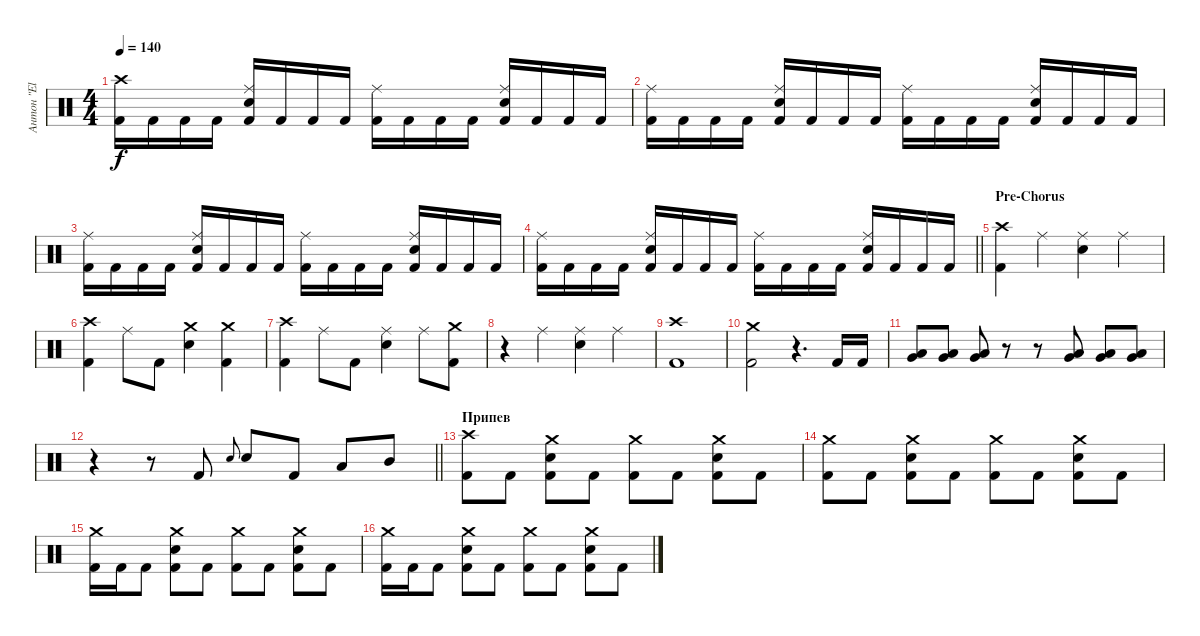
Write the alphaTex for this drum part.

\track ("Антон \"El Bastardo\" Смольянин" "Антон \"El ") {instrument percussion}
\staff {score}
\articulation defaults
\ts (4 4)
\tempo 140
\clef neutral
\ks c
("Crash high (hit)" "Kick (hit) 2").16{dy f} "Kick (hit) 2".16 "Kick (hit) 2".16 "Kick (hit) 2".16 ("Ride (middle)" "Electric Snare (hit)" "Kick (hit) 2").16 "Kick (hit) 2".16 "Kick (hit) 2".16 "Kick (hit) 2".16 ("Ride (middle)" "Kick (hit) 2").16 "Kick (hit) 2".16 "Kick (hit) 2".16 "Kick (hit) 2".16 ("Ride (middle)" "Electric Snare (hit)" "Kick (hit) 2").16 "Kick (hit) 2".16 "Kick (hit) 2".16 "Kick (hit) 2".16 |
("Ride (middle)" "Kick (hit) 2").16 "Kick (hit) 2".16 "Kick (hit) 2".16 "Kick (hit) 2".16 ("Ride (middle)" "Electric Snare (hit)" "Kick (hit) 2").16 "Kick (hit) 2".16 "Kick (hit) 2".16 "Kick (hit) 2".16 ("Ride (middle)" "Kick (hit) 2").16 "Kick (hit) 2".16 "Kick (hit) 2".16 "Kick (hit) 2".16 ("Ride (middle)" "Electric Snare (hit)" "Kick (hit) 2").16 "Kick (hit) 2".16 "Kick (hit) 2".16 "Kick (hit) 2".16 |
("Ride (middle)" "Kick (hit) 2").16 "Kick (hit) 2".16 "Kick (hit) 2".16 "Kick (hit) 2".16 ("Ride (middle)" "Electric Snare (hit)" "Kick (hit) 2").16 "Kick (hit) 2".16 "Kick (hit) 2".16 "Kick (hit) 2".16 ("Ride (middle)" "Kick (hit) 2").16 "Kick (hit) 2".16 "Kick (hit) 2".16 "Kick (hit) 2".16 ("Ride (middle)" "Electric Snare (hit)" "Kick (hit) 2").16 "Kick (hit) 2".16 "Kick (hit) 2".16 "Kick (hit) 2".16 |
\barLineRight lightlight
("Ride (middle)" "Kick (hit) 2").16 "Kick (hit) 2".16 "Kick (hit) 2".16 "Kick (hit) 2".16 ("Ride (middle)" "Electric Snare (hit)" "Kick (hit) 2").16 "Kick (hit) 2".16 "Kick (hit) 2".16 "Kick (hit) 2".16 ("Ride (middle)" "Kick (hit) 2").16 "Kick (hit) 2".16 "Kick (hit) 2".16 "Kick (hit) 2".16 ("Ride (middle)" "Electric Snare (hit)" "Kick (hit) 2").16 "Kick (hit) 2".16 "Kick (hit) 2".16 "Kick (hit) 2".16 |
\section ("" "Pre-Chorus")
("Crash high (hit)" "Kick (hit) 2").4 "Ride (middle)".4 ("Ride (middle)" "Electric Snare (hit)").4 "Ride (middle)".4 |
("Crash high (hit)" "Kick (hit) 2").4 "Ride (middle)".8 "Kick (hit) 2".8 ("Crash medium (hit)" "Electric Snare (hit)").4 ("Crash medium (hit)" "Kick (hit) 2").4 |
("Crash high (hit)" "Kick (hit) 2").4 "Ride (middle)".8 "Kick (hit) 2".8 ("Ride (middle)" "Electric Snare (hit)").4 "Ride (middle)".8 ("Crash medium (hit)" "Kick (hit) 2").8 |
r.4 "Ride (middle)".4 ("Ride (middle)" "Electric Snare (hit)").4 "Ride (middle)".4 |
("Crash high (hit)" "Kick (hit) 2").1 |
("Crash medium (hit)" "Kick (hit) 2").2 r.4{d} "Kick (hit) 2".16 "Kick (hit) 2".16 |
("Low Tom (hit)" "Very Low Tom (hit)").8 ("Low Tom (hit)" "Very Low Tom (hit)").8 ("Low Tom (hit)" "Very Low Tom (hit)").8 r.8 r.8 ("Low Tom (hit)" "Very Low Tom (hit)").8 ("Low Tom (hit)" "Very Low Tom (hit)").8 ("Low Tom (hit)" "Very Low Tom (hit)").8 |
\barLineRight lightlight
r.4 r.8 "Kick (hit) 2".8 "Electric Snare (hit)".8{gr onbeat} "Electric Snare (hit)".8 "Kick (hit) 2".8 "Low Tom (hit)".8 "Mid Tom (hit)".8 |
\section ("" "Припев")
("Crash high (hit)" "Kick (hit) 2").8 "Kick (hit) 2".8 ("Crash medium (hit)" "Electric Snare (hit)" "Kick (hit) 2").8 "Kick (hit) 2".8 ("Crash medium (hit)" "Kick (hit) 2").8 "Kick (hit) 2".8 ("Crash medium (hit)" "Electric Snare (hit)" "Kick (hit) 2").8 "Kick (hit) 2".8 |
("Crash medium (hit)" "Kick (hit) 2").8 "Kick (hit) 2".8 ("Crash medium (hit)" "Electric Snare (hit)" "Kick (hit) 2").8 "Kick (hit) 2".8 ("Crash medium (hit)" "Kick (hit) 2").8 "Kick (hit) 2".8 ("Crash medium (hit)" "Electric Snare (hit)" "Kick (hit) 2").8 "Kick (hit) 2".8 |
("Crash medium (hit)" "Kick (hit) 2").16 "Kick (hit) 2".16 "Kick (hit) 2".8 ("Crash medium (hit)" "Electric Snare (hit)" "Kick (hit) 2").8 "Kick (hit) 2".8 ("Crash medium (hit)" "Kick (hit) 2").8 "Kick (hit) 2".8 ("Crash medium (hit)" "Electric Snare (hit)" "Kick (hit) 2").8 "Kick (hit) 2".8 |
("Crash medium (hit)" "Kick (hit) 2").16 "Kick (hit) 2".16 "Kick (hit) 2".8 ("Crash medium (hit)" "Electric Snare (hit)" "Kick (hit) 2").8 "Kick (hit) 2".8 ("Crash medium (hit)" "Kick (hit) 2").8 "Kick (hit) 2".8 ("Crash medium (hit)" "Electric Snare (hit)" "Kick (hit) 2").8 "Kick (hit) 2".8
